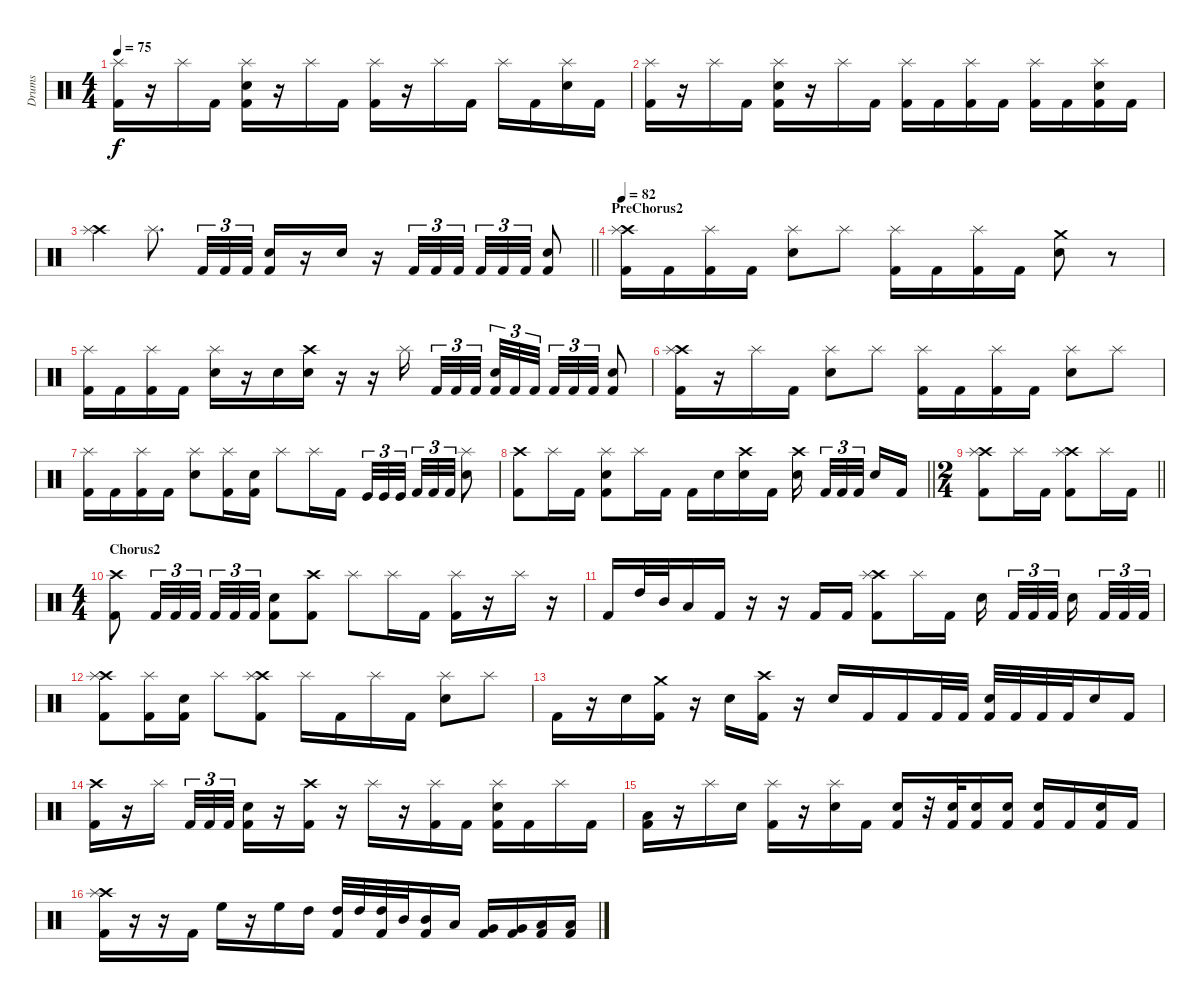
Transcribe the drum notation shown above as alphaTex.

\track ("Drums" "Drums") {instrument percussion}
\staff {score}
\articulation defaults
\ts (4 4)
\tempo 75
\clef neutral
\ks c
("Splash (hit)" "Kick (hit) 2").16{dy f} r.16 "Splash (hit)".16 "Kick (hit) 2".16 ("Splash (hit)" "Snare (hit) 2" "Kick (hit) 2").16 r.16 "Splash (hit)".16 "Kick (hit) 2".16 ("Splash (hit)" "Kick (hit) 2").16 r.16 "Splash (hit)".16 "Kick (hit) 2".16 "Splash (hit)".16 "Kick (hit) 2".16 ("Splash (hit)" "Snare (hit) 2").16 "Kick (hit) 2".16 |
("Splash (hit)" "Kick (hit) 2").16 r.16 "Splash (hit)".16 "Kick (hit) 2".16 ("Splash (hit)" "Snare (hit) 2" "Kick (hit) 2").16 r.16 "Splash (hit)".16 "Kick (hit) 2".16 ("Splash (hit)" "Kick (hit) 2").16 "Kick (hit) 2".16 ("Splash (hit)" "Kick (hit) 2").16 "Kick (hit) 2".16 ("Splash (hit)" "Kick (hit) 2").16 "Kick (hit) 2".16 ("Splash (hit)" "Snare (hit) 2" "Kick (hit) 2").16 "Kick (hit) 2".16 |
\barLineRight lightlight
("Crash high (hit)" "Splash (hit)").4 "Splash (hit)".8{d} "Kick (hit) 2".32{tu (3 2)} "Kick (hit) 2".32{tu (3 2)} "Kick (hit) 2".32{tu (3 2)} ("Snare (hit) 2" "Kick (hit) 2").16 r.16 "Snare (hit) 2".16 r.16 "Kick (hit) 2".32{tu (3 2)} "Kick (hit) 2".32{tu (3 2)} "Kick (hit) 2".32{tu (3 2) beam splitsecondary} "Kick (hit) 2".32{tu (3 2)} "Kick (hit) 2".32{tu (3 2)} "Kick (hit) 2".32{tu (3 2)} ("Snare (hit) 2" "Kick (hit) 2").8 |
\section ("" "PreChorus2")
\tempo 82
("Crash high (hit)" "Splash (hit)" "Kick (hit) 2").16 "Kick (hit) 2".16 ("Splash (hit)" "Kick (hit) 2").16 "Kick (hit) 2".16 ("Splash (hit)" "Snare (hit) 2").8 "Splash (hit)".8 ("Splash (hit)" "Kick (hit) 2").16 "Kick (hit) 2".16 ("Splash (hit)" "Kick (hit) 2").16 "Kick (hit) 2".16 ("Crash medium (hit)" "Snare (hit) 2").8 r.8 |
("Splash (hit)" "Kick (hit) 2").16 "Kick (hit) 2".16 ("Splash (hit)" "Kick (hit) 2").16 "Kick (hit) 2".16 ("Splash (hit)" "Snare (hit) 2").16 r.16 "Snare (hit) 2".16 ("Crash high (hit)" "Snare (hit) 2").16 r.16 r.16 "Splash (hit)".16{beam splitsecondary} "Kick (hit) 2".32{tu (3 2)} "Kick (hit) 2".32{tu (3 2)} "Kick (hit) 2".32{tu (3 2)} ("Snare (hit) 2" "Kick (hit) 2").32{tu (3 2)} "Kick (hit) 2".32{tu (3 2)} "Kick (hit) 2".32{tu (3 2) beam splitsecondary} "Kick (hit) 2".32{tu (3 2)} "Kick (hit) 2".32{tu (3 2)} "Kick (hit) 2".32{tu (3 2)} ("Snare (hit) 2" "Kick (hit) 2").8 |
("Crash high (hit)" "Splash (hit)" "Kick (hit) 2").16 r.16 "Splash (hit)".16 "Kick (hit) 2".16 ("Splash (hit)" "Snare (hit) 2").8 "Splash (hit)".8 ("Splash (hit)" "Kick (hit) 2").16 "Kick (hit) 2".16 ("Splash (hit)" "Kick (hit) 2").16 "Kick (hit) 2".16 ("Splash (hit)" "Snare (hit) 2").8 "Splash (hit)".8 |
("Splash (hit)" "Kick (hit) 2").16 "Kick (hit) 2".16 ("Splash (hit)" "Kick (hit) 2").16 "Kick (hit) 2".16 ("Splash (hit)" "Snare (hit) 2").8 ("Splash (hit)" "Kick (hit) 2").16 ("Snare (hit) 2" "Kick (hit) 2").16 "Splash (hit)".8 "Splash (hit)".16 "Kick (hit) 2".16 "Kick (hit)".32{tu (3 2)} "Kick (hit)".32{tu (3 2)} "Kick (hit)".32{tu (3 2) beam splitsecondary} "Kick (hit) 2".32{tu (3 2)} "Kick (hit) 2".32{tu (3 2)} "Kick (hit) 2".32{tu (3 2)} ("Splash (hit)" "Snare (hit) 2").8 |
\barLineRight lightlight
("Crash high (hit)" "Kick (hit) 2").8 "Splash (hit)".16 "Kick (hit) 2".16 ("Splash (hit)" "Snare (hit) 2" "Kick (hit) 2").8 "Splash (hit)".16 "Kick (hit) 2".16 "Kick (hit) 2".16 "Snare (hit) 2".16 ("Crash high (hit)" "Snare (hit) 2").16 "Kick (hit) 2".16 ("Crash high (hit)" "Snare (hit) 2").16{beam splitsecondary} "Kick (hit) 2".32{tu (3 2)} "Kick (hit) 2".32{tu (3 2)} "Kick (hit) 2".32{tu (3 2) beam splitsecondary} "Snare (hit) 2".16 "Kick (hit) 2".16 |
\ts (2 4)
\barLineRight lightlight
("Crash high (hit)" "Splash (hit)" "Kick (hit) 2").8 "Splash (hit)".16 "Kick (hit) 2".16 ("Crash high (hit)" "Splash (hit)" "Kick (hit) 2").8 "Splash (hit)".16 "Kick (hit) 2".16 |
\ts (4 4)
\section ("" "Chorus2")
("Crash high (hit)" "Kick (hit) 2").8 "Kick (hit) 2".32{tu (3 2)} "Kick (hit) 2".32{tu (3 2)} "Kick (hit) 2".32{tu (3 2) beam splitsecondary} "Kick (hit) 2".32{tu (3 2)} "Kick (hit) 2".32{tu (3 2)} "Kick (hit) 2".32{tu (3 2)} ("Snare (hit) 2" "Kick (hit) 2").8 ("Crash high (hit)" "Kick (hit) 2").8 "Splash (hit)".8 "Splash (hit)".16 "Kick (hit) 2".16 ("Splash (hit)" "Kick (hit) 2").16 r.16 "Splash (hit)".16 r.16 |
"Kick (hit) 2".16 "High Tom (hit)".32 "Mid Tom (hit)".32 "Low Tom (hit)".16 "Kick (hit) 2".16 r.16 r.16 "Kick (hit) 2".16 "Kick (hit) 2".16 ("Crash high (hit)" "Splash (hit)" "Kick (hit) 2").8 "Splash (hit)".16 "Kick (hit) 2".16 "Snare (hit) 2".16{beam splitsecondary} "Kick (hit) 2".32{tu (3 2)} "Kick (hit) 2".32{tu (3 2)} "Kick (hit) 2".32{tu (3 2) beam splitsecondary} "Snare (hit) 2".16{beam splitsecondary} "Kick (hit) 2".32{tu (3 2)} "Kick (hit) 2".32{tu (3 2)} "Kick (hit) 2".32{tu (3 2)} |
("Crash high (hit)" "Splash (hit)" "Kick (hit) 2").8 ("Splash (hit)" "Kick (hit) 2").16 ("Snare (hit) 2" "Kick (hit) 2").16 "Splash (hit)".8 ("Crash high (hit)" "Splash (hit)" "Kick (hit) 2").8 "Splash (hit)".16 "Kick (hit) 2".16 "Splash (hit)".16 "Kick (hit) 2".16 ("Splash (hit)" "Snare (hit) 2").8 "Splash (hit)".8 |
"Kick (hit) 2".16 r.16 "Snare (hit) 2".16 ("Crash medium (hit)" "Kick (hit) 2").16 r.16 "Snare (hit) 2".16 ("Crash high (hit)" "Kick (hit) 2").16 r.16 "Snare (hit) 2".16 "Kick (hit) 2".16 "Kick (hit) 2".16 "Kick (hit) 2".32 "Kick (hit) 2".32 ("Snare (hit) 2" "Kick (hit) 2").32 "Kick (hit) 2".32 "Kick (hit) 2".32 "Kick (hit) 2".32 "Snare (hit) 2".16 "Kick (hit) 2".16 |
("Crash high (hit)" "Kick (hit) 2").16 r.16 "Splash (hit)".16{beam splitsecondary} "Kick (hit) 2".32{tu (3 2)} "Kick (hit) 2".32{tu (3 2)} "Kick (hit) 2".32{tu (3 2)} ("Snare (hit) 2" "Kick (hit) 2").16 r.16 ("Crash high (hit)" "Kick (hit) 2").16 r.16 "Splash (hit)".16 r.16 ("Splash (hit)" "Kick (hit) 2").16 "Kick (hit) 2".16 ("Splash (hit)" "Snare (hit) 2" "Kick (hit) 2").16 "Kick (hit) 2".16 "Splash (hit)".16 "Kick (hit) 2".16 |
("Low Floor Tom (hit)" "Kick (hit) 2").16 r.16 "Splash (hit)".16 "Snare (hit) 2".16 ("Splash (hit)" "Kick (hit) 2").16 r.16 ("Splash (hit)" "Snare (hit) 2").16 "Kick (hit) 2".16 ("Snare (hit) 2" "Kick (hit) 2").16 r.32 ("Snare (hit) 2" "Kick (hit) 2").32 ("Snare (hit) 2" "Kick (hit) 2").16 ("Snare (hit) 2" "Kick (hit) 2").16 ("Snare (hit) 2" "Kick (hit) 2").16 "Kick (hit) 2".16 ("Snare (hit) 2" "Kick (hit) 2").16 "Kick (hit) 2".16 |
("Crash high (hit)" "Splash (hit)" "Kick (hit) 2").16 r.16 r.16 "Kick (hit) 2".16 "High Floor Tom (hit)".16 r.16 "High Floor Tom (hit)".16 "High Tom (hit)".16 ("Kick (hit) 2" "High Tom (hit)").32 "High Tom (hit)".32 ("Kick (hit) 2" "High Tom (hit)").32 "Mid Tom (hit)".32 ("Kick (hit) 2" "Mid Tom (hit)").16 "Low Tom (hit)".16 ("Very Low Tom (hit)" "Kick (hit) 2").16 ("Very Low Tom (hit)" "Kick (hit) 2").16 ("Low Floor Tom (hit)" "Kick (hit) 2").16 ("Low Floor Tom (hit)" "Kick (hit) 2").16
